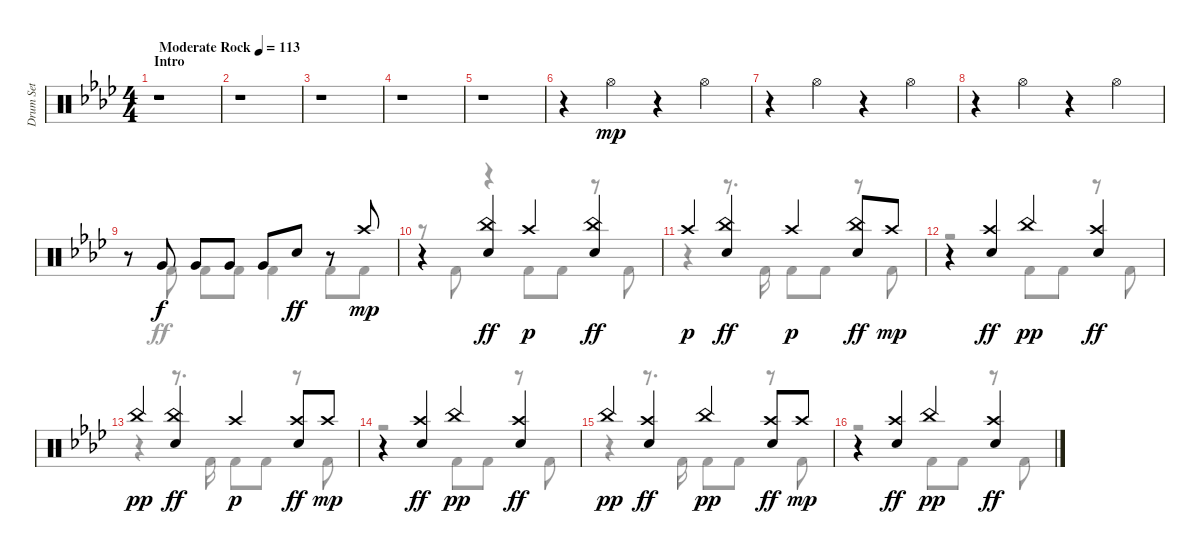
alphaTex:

\track ("Drum Set" "Drum Set") {instrument percussion}
\staff {score}
\articulation defaults
\voice
\ts (4 4)
\section ("" "Intro")
\tempo (113 "Moderate Rock")
\clef neutral
\ks fminor
r.1{dy mp} |
r.1 |
r.1 |
r.1 |
r.1 |
r.4 "Hi-Hat (open)".4 r.4 "Hi-Hat (open)".4 |
r.4 "Hi-Hat (open)".4 r.4 "Hi-Hat (open)".4 |
r.4 "Hi-Hat (open)".4 r.4 "Hi-Hat (open)".4 |
r.8 "Very Low Tom (hit)".8{dy f} "Very Low Tom (hit)".8 "Very Low Tom (hit)".8 "Very Low Tom (hit)".8 "Electric Snare (hit)".8{dy ff} r.8 "Crash high (hit)".8{dy mp} |
r.4 ("China (hit)" "Electric Snare (hit)").4{dy ff} "Crash high (hit)".4{dy p} ("China (hit)" "Electric Snare (hit)").4{dy ff} |
"Crash high (hit)".4{dy p} ("China (hit)" "Electric Snare (hit)").4{dy ff} "Crash high (hit)".4{dy p} ("China (hit)" "Electric Snare (hit)").8{dy ff} "Crash high (hit)".8{dy mp} |
r.4 ("Crash high (hit)" "Electric Snare (hit)").4{dy ff} "China (hit)".4{dy pp} ("Crash high (hit)" "Electric Snare (hit)").4{dy ff} |
"China (hit)".4{dy pp} ("China (hit)" "Electric Snare (hit)").4{dy ff} "Crash high (hit)".4{dy p} ("Crash high (hit)" "Electric Snare (hit)").8{dy ff} "Crash high (hit)".8{dy mp} |
r.4 ("Crash high (hit)" "Electric Snare (hit)").4{dy ff} "China (hit)".4{dy pp} ("Crash high (hit)" "Electric Snare (hit)").4{dy ff} |
"China (hit)".4{dy pp} ("Crash high (hit)" "Electric Snare (hit)").4{dy ff} "China (hit)".4{dy pp} ("Crash high (hit)" "Electric Snare (hit)").8{dy ff} "Crash high (hit)".8{dy mp} |
r.4 ("Crash high (hit)" "Electric Snare (hit)").4{dy ff} "China (hit)".4{dy pp} ("Crash high (hit)" "Electric Snare (hit)").4{dy ff}
\voice
\clef neutral
\ottava regular
\simile none
\ks fminor
|
|
|
|
|
|
|
|
r.8 "Kick (hit) 2".8 "Kick (hit) 2".8 "Kick (hit) 2".8 "Kick (hit) 2".4 "Kick (hit) 2".8 "Kick (hit) 2".8 |
r.8 "Kick (hit) 2".8 r.4 "Kick (hit) 2".8 "Kick (hit) 2".8 r.8 "Kick (hit) 2".8 |
r.4 r.8{d} "Kick (hit) 2".16 "Kick (hit) 2".8 "Kick (hit) 2".8 r.8 "Kick (hit) 2".8 |
r.2 "Kick (hit) 2".8 "Kick (hit) 2".8 r.8 "Kick (hit) 2".8 |
r.4 r.8{d} "Kick (hit) 2".16 "Kick (hit) 2".8 "Kick (hit) 2".8 r.8 "Kick (hit) 2".8 |
r.2 "Kick (hit) 2".8 "Kick (hit) 2".8 r.8 "Kick (hit) 2".8 |
r.4 r.8{d} "Kick (hit) 2".16 "Kick (hit) 2".8 "Kick (hit) 2".8 r.8 "Kick (hit) 2".8 |
r.2 "Kick (hit) 2".8 "Kick (hit) 2".8 r.8 "Kick (hit) 2".8
